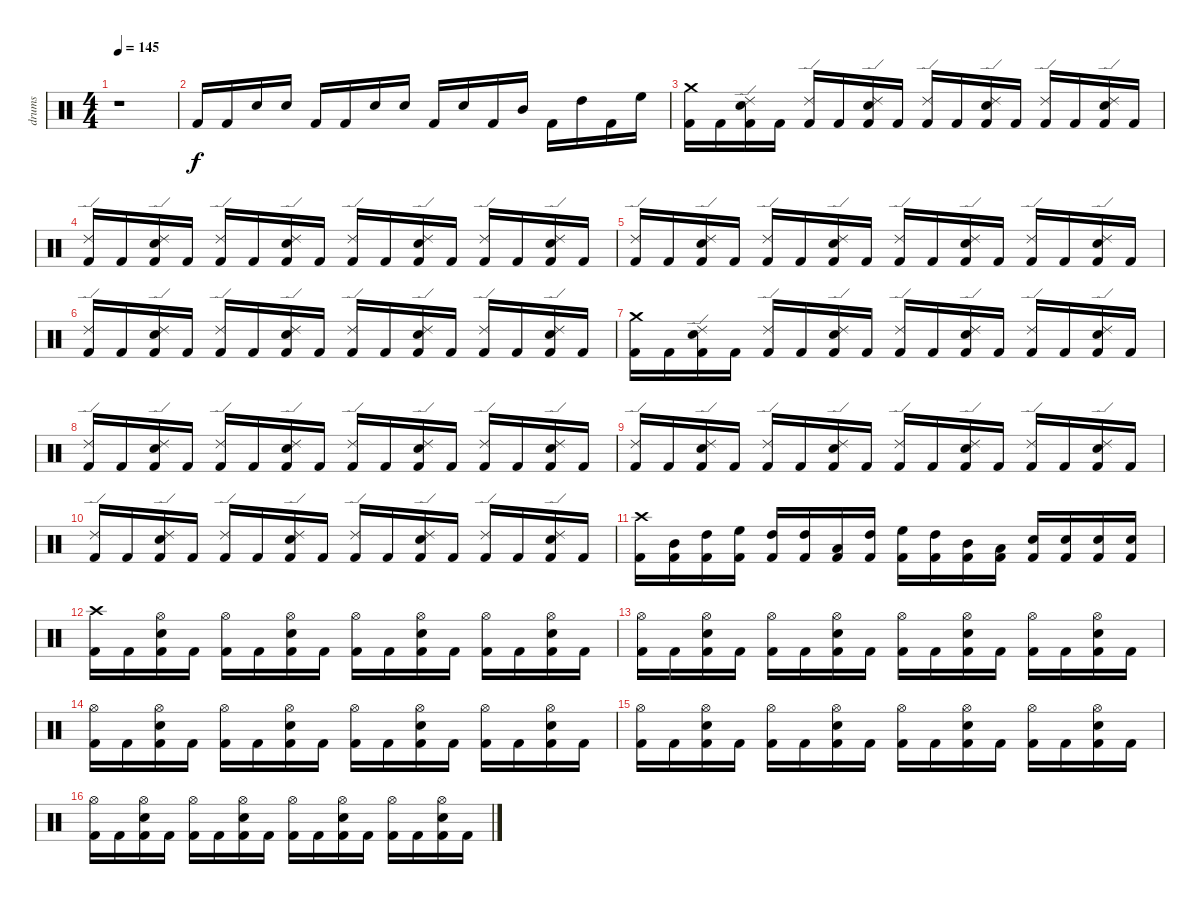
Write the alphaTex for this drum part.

\track ("drums" "drums") {instrument percussion}
\staff {score}
\articulation defaults
\ts (4 4)
\tempo 145
\clef neutral
\ks c
r.1{dy f} |
"Kick (hit) 2".16 "Kick (hit) 2".16 "Snare (hit) 2".16 "Snare (hit) 2".16 "Kick (hit) 2".16 "Kick (hit) 2".16 "Snare (hit) 2".16 "Snare (hit) 2".16 "Kick (hit) 2".16 "Snare (hit) 2".16 "Kick (hit) 2".16 "Mid Tom (hit)".16 "Kick (hit) 2".16 "High Tom (hit)".16 "Kick (hit) 2".16 "High Floor Tom (hit)".16 |
("Crash medium (hit)" "Kick (hit) 2").16 "Kick (hit) 2".16 ("Kick (hit) 2" "Ride (edge) 2" "Snare (hit) 2").16 "Kick (hit) 2".16 ("Ride (edge) 2" "Kick (hit) 2").16 "Kick (hit) 2".16 ("Kick (hit) 2" "Ride (edge) 2" "Snare (hit) 2").16 "Kick (hit) 2".16 ("Ride (edge) 2" "Kick (hit) 2").16 "Kick (hit) 2".16 ("Kick (hit) 2" "Ride (edge) 2" "Snare (hit) 2").16 "Kick (hit) 2".16 ("Ride (edge) 2" "Kick (hit) 2").16 "Kick (hit) 2".16 ("Kick (hit) 2" "Ride (edge) 2" "Snare (hit) 2").16 "Kick (hit) 2".16 |
("Ride (edge) 2" "Kick (hit) 2").16 "Kick (hit) 2".16 ("Kick (hit) 2" "Ride (edge) 2" "Snare (hit) 2").16 "Kick (hit) 2".16 ("Ride (edge) 2" "Kick (hit) 2").16 "Kick (hit) 2".16 ("Kick (hit) 2" "Ride (edge) 2" "Snare (hit) 2").16 "Kick (hit) 2".16 ("Ride (edge) 2" "Kick (hit) 2").16 "Kick (hit) 2".16 ("Kick (hit) 2" "Ride (edge) 2" "Snare (hit) 2").16 "Kick (hit) 2".16 ("Ride (edge) 2" "Kick (hit) 2").16 "Kick (hit) 2".16 ("Kick (hit) 2" "Ride (edge) 2" "Snare (hit) 2").16 "Kick (hit) 2".16 |
("Ride (edge) 2" "Kick (hit) 2").16 "Kick (hit) 2".16 ("Kick (hit) 2" "Ride (edge) 2" "Snare (hit) 2").16 "Kick (hit) 2".16 ("Ride (edge) 2" "Kick (hit) 2").16 "Kick (hit) 2".16 ("Kick (hit) 2" "Ride (edge) 2" "Snare (hit) 2").16 "Kick (hit) 2".16 ("Ride (edge) 2" "Kick (hit) 2").16 "Kick (hit) 2".16 ("Kick (hit) 2" "Ride (edge) 2" "Snare (hit) 2").16 "Kick (hit) 2".16 ("Ride (edge) 2" "Kick (hit) 2").16 "Kick (hit) 2".16 ("Kick (hit) 2" "Ride (edge) 2" "Snare (hit) 2").16 "Kick (hit) 2".16 |
("Ride (edge) 2" "Kick (hit) 2").16 "Kick (hit) 2".16 ("Kick (hit) 2" "Ride (edge) 2" "Snare (hit) 2").16 "Kick (hit) 2".16 ("Ride (edge) 2" "Kick (hit) 2").16 "Kick (hit) 2".16 ("Kick (hit) 2" "Ride (edge) 2" "Snare (hit) 2").16 "Kick (hit) 2".16 ("Ride (edge) 2" "Kick (hit) 2").16 "Kick (hit) 2".16 ("Kick (hit) 2" "Ride (edge) 2" "Snare (hit) 2").16 "Kick (hit) 2".16 ("Ride (edge) 2" "Kick (hit) 2").16 "Kick (hit) 2".16 ("Kick (hit) 2" "Ride (edge) 2" "Snare (hit) 2").16 "Kick (hit) 2".16 |
("Crash medium (hit)" "Kick (hit) 2").16 "Kick (hit) 2".16 ("Kick (hit) 2" "Ride (edge) 2" "Snare (hit) 2").16 "Kick (hit) 2".16 ("Ride (edge) 2" "Kick (hit) 2").16 "Kick (hit) 2".16 ("Kick (hit) 2" "Ride (edge) 2" "Snare (hit) 2").16 "Kick (hit) 2".16 ("Ride (edge) 2" "Kick (hit) 2").16 "Kick (hit) 2".16 ("Kick (hit) 2" "Ride (edge) 2" "Snare (hit) 2").16 "Kick (hit) 2".16 ("Ride (edge) 2" "Kick (hit) 2").16 "Kick (hit) 2".16 ("Kick (hit) 2" "Ride (edge) 2" "Snare (hit) 2").16 "Kick (hit) 2".16 |
("Ride (edge) 2" "Kick (hit) 2").16 "Kick (hit) 2".16 ("Kick (hit) 2" "Ride (edge) 2" "Snare (hit) 2").16 "Kick (hit) 2".16 ("Ride (edge) 2" "Kick (hit) 2").16 "Kick (hit) 2".16 ("Kick (hit) 2" "Ride (edge) 2" "Snare (hit) 2").16 "Kick (hit) 2".16 ("Ride (edge) 2" "Kick (hit) 2").16 "Kick (hit) 2".16 ("Kick (hit) 2" "Ride (edge) 2" "Snare (hit) 2").16 "Kick (hit) 2".16 ("Ride (edge) 2" "Kick (hit) 2").16 "Kick (hit) 2".16 ("Kick (hit) 2" "Ride (edge) 2" "Snare (hit) 2").16 "Kick (hit) 2".16 |
("Ride (edge) 2" "Kick (hit) 2").16 "Kick (hit) 2".16 ("Kick (hit) 2" "Ride (edge) 2" "Snare (hit) 2").16 "Kick (hit) 2".16 ("Ride (edge) 2" "Kick (hit) 2").16 "Kick (hit) 2".16 ("Kick (hit) 2" "Ride (edge) 2" "Snare (hit) 2").16 "Kick (hit) 2".16 ("Ride (edge) 2" "Kick (hit) 2").16 "Kick (hit) 2".16 ("Kick (hit) 2" "Ride (edge) 2" "Snare (hit) 2").16 "Kick (hit) 2".16 ("Ride (edge) 2" "Kick (hit) 2").16 "Kick (hit) 2".16 ("Kick (hit) 2" "Ride (edge) 2" "Snare (hit) 2").16 "Kick (hit) 2".16 |
("Ride (edge) 2" "Kick (hit) 2").16 "Kick (hit) 2".16 ("Kick (hit) 2" "Ride (edge) 2" "Snare (hit) 2").16 "Kick (hit) 2".16 ("Ride (edge) 2" "Kick (hit) 2").16 "Kick (hit) 2".16 ("Kick (hit) 2" "Ride (edge) 2" "Snare (hit) 2").16 "Kick (hit) 2".16 ("Ride (edge) 2" "Kick (hit) 2").16 "Kick (hit) 2".16 ("Kick (hit) 2" "Ride (edge) 2" "Snare (hit) 2").16 "Kick (hit) 2".16 ("Ride (edge) 2" "Kick (hit) 2").16 "Kick (hit) 2".16 ("Kick (hit) 2" "Ride (edge) 2" "Snare (hit) 2").16 "Kick (hit) 2".16 |
("Crash high (hit)" "Kick (hit) 2").16 ("Mid Tom (hit)" "Kick (hit) 2").16 ("Kick (hit) 2" "High Tom (hit)").16 ("Kick (hit) 2" "High Floor Tom (hit)").16 ("Kick (hit) 2" "High Tom (hit)").16 ("Kick (hit) 2" "High Tom (hit)").16 ("Kick (hit) 2" "Low Tom (hit)").16 ("Kick (hit) 2" "High Tom (hit)").16 ("Kick (hit) 2" "High Floor Tom (hit)").16 ("Kick (hit) 2" "High Tom (hit)").16 ("Kick (hit) 2" "Mid Tom (hit)").16 ("Kick (hit) 2" "Low Tom (hit)").16 ("Kick (hit) 2" "Snare (hit) 2").16 ("Kick (hit) 2" "Snare (hit) 2").16 ("Kick (hit) 2" "Snare (hit) 2").16 ("Kick (hit) 2" "Snare (hit) 2").16 |
("Crash high (hit)" "Kick (hit) 2").16 "Kick (hit) 2".16 ("Hi-Hat (open)" "Kick (hit) 2" "Snare (hit) 2").16 "Kick (hit) 2".16 ("Hi-Hat (open)" "Kick (hit) 2").16 "Kick (hit) 2".16 ("Hi-Hat (open)" "Kick (hit) 2" "Snare (hit) 2").16 "Kick (hit) 2".16 ("Hi-Hat (open)" "Kick (hit) 2").16 "Kick (hit) 2".16 ("Hi-Hat (open)" "Kick (hit) 2" "Snare (hit) 2").16 "Kick (hit) 2".16 ("Hi-Hat (open)" "Kick (hit) 2").16 "Kick (hit) 2".16 ("Hi-Hat (open)" "Kick (hit) 2" "Snare (hit) 2").16 "Kick (hit) 2".16 |
("Hi-Hat (open)" "Kick (hit) 2").16 "Kick (hit) 2".16 ("Hi-Hat (open)" "Kick (hit) 2" "Snare (hit) 2").16 "Kick (hit) 2".16 ("Hi-Hat (open)" "Kick (hit) 2").16 "Kick (hit) 2".16 ("Hi-Hat (open)" "Kick (hit) 2" "Snare (hit) 2").16 "Kick (hit) 2".16 ("Hi-Hat (open)" "Kick (hit) 2").16 "Kick (hit) 2".16 ("Hi-Hat (open)" "Kick (hit) 2" "Snare (hit) 2").16 "Kick (hit) 2".16 ("Hi-Hat (open)" "Kick (hit) 2").16 "Kick (hit) 2".16 ("Hi-Hat (open)" "Kick (hit) 2" "Snare (hit) 2").16 "Kick (hit) 2".16 |
("Hi-Hat (open)" "Kick (hit) 2").16 "Kick (hit) 2".16 ("Hi-Hat (open)" "Kick (hit) 2" "Snare (hit) 2").16 "Kick (hit) 2".16 ("Hi-Hat (open)" "Kick (hit) 2").16 "Kick (hit) 2".16 ("Hi-Hat (open)" "Kick (hit) 2" "Snare (hit) 2").16 "Kick (hit) 2".16 ("Hi-Hat (open)" "Kick (hit) 2").16 "Kick (hit) 2".16 ("Hi-Hat (open)" "Kick (hit) 2" "Snare (hit) 2").16 "Kick (hit) 2".16 ("Hi-Hat (open)" "Kick (hit) 2").16 "Kick (hit) 2".16 ("Hi-Hat (open)" "Kick (hit) 2" "Snare (hit) 2").16 "Kick (hit) 2".16 |
("Hi-Hat (open)" "Kick (hit) 2").16 "Kick (hit) 2".16 ("Hi-Hat (open)" "Kick (hit) 2" "Snare (hit) 2").16 "Kick (hit) 2".16 ("Hi-Hat (open)" "Kick (hit) 2").16 "Kick (hit) 2".16 ("Hi-Hat (open)" "Kick (hit) 2" "Snare (hit) 2").16 "Kick (hit) 2".16 ("Hi-Hat (open)" "Kick (hit) 2").16 "Kick (hit) 2".16 ("Hi-Hat (open)" "Kick (hit) 2" "Snare (hit) 2").16 "Kick (hit) 2".16 ("Hi-Hat (open)" "Kick (hit) 2").16 "Kick (hit) 2".16 ("Hi-Hat (open)" "Kick (hit) 2" "Snare (hit) 2").16 "Kick (hit) 2".16 |
("Hi-Hat (open)" "Kick (hit) 2").16 "Kick (hit) 2".16 ("Hi-Hat (open)" "Kick (hit) 2" "Snare (hit) 2").16 "Kick (hit) 2".16 ("Hi-Hat (open)" "Kick (hit) 2").16 "Kick (hit) 2".16 ("Hi-Hat (open)" "Kick (hit) 2" "Snare (hit) 2").16 "Kick (hit) 2".16 ("Hi-Hat (open)" "Kick (hit) 2").16 "Kick (hit) 2".16 ("Hi-Hat (open)" "Kick (hit) 2" "Snare (hit) 2").16 "Kick (hit) 2".16 ("Hi-Hat (open)" "Kick (hit) 2").16 "Kick (hit) 2".16 ("Hi-Hat (open)" "Kick (hit) 2" "Snare (hit) 2").16 "Kick (hit) 2".16
